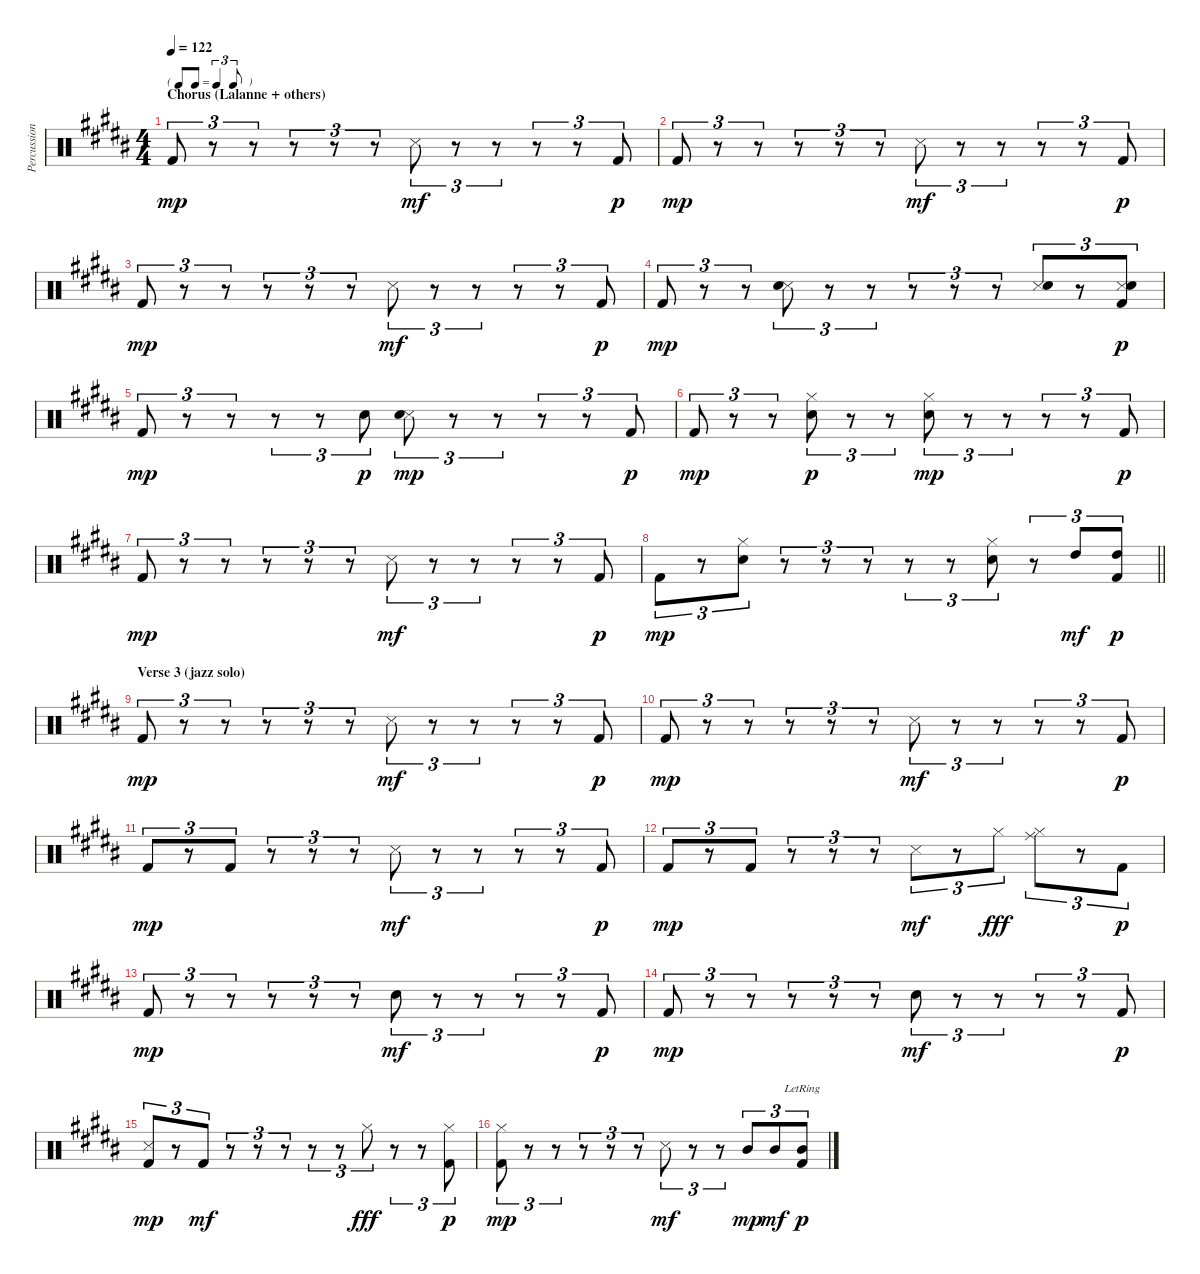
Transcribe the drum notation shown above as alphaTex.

\track ("Percussion" "Percussion") {instrument percussion}
\staff {score}
\articulation defaults
\ts (4 4)
\tf triplet8th
\section ("" "Chorus (Lalanne + others)")
\tempo 122
\clef neutral
\ks g#minor "Kick (hit) 2".8{tu (3 2) dy mp}
r.8{tu (3 2)} r.8{tu (3 2)} r.8{tu (3 2)} r.8{tu (3 2)} r.8{tu (3 2)} "Snare (side stick) 3".8{tu (3 2) dy mf} r.8{tu (3 2)} r.8{tu (3 2)} r.8{tu (3 2)} r.8{tu (3 2)} "Kick (hit) 2".8{tu (3 2) dy p} |
"Kick (hit) 2".8{tu (3 2) dy mp} r.8{tu (3 2)} r.8{tu (3 2)} r.8{tu (3 2)} r.8{tu (3 2)} r.8{tu (3 2)} "Snare (side stick) 3".8{tu (3 2) dy mf} r.8{tu (3 2)} r.8{tu (3 2)} r.8{tu (3 2)} r.8{tu (3 2)} "Kick (hit) 2".8{tu (3 2) dy p} |
"Kick (hit) 2".8{tu (3 2) dy mp} r.8{tu (3 2)} r.8{tu (3 2)} r.8{tu (3 2)} r.8{tu (3 2)} r.8{tu (3 2)} "Snare (side stick) 3".8{tu (3 2) dy mf} r.8{tu (3 2)} r.8{tu (3 2)} r.8{tu (3 2)} r.8{tu (3 2)} "Kick (hit) 2".8{tu (3 2) dy p} |
"Kick (hit) 2".8{tu (3 2) dy mp} r.8{tu (3 2)} r.8{tu (3 2)} ("Snare (side stick) 3" "Snare (hit) 2").8{tu (3 2)} r.8{tu (3 2)} r.8{tu (3 2)} r.8{tu (3 2)} r.8{tu (3 2)} r.8{tu (3 2)} ("Snare (side stick) 3" "Snare (hit) 2").8{tu (3 2)} r.8{tu (3 2)} ("Snare (side stick) 3" "Snare (hit) 2" "Kick (hit) 2").8{tu (3 2) dy p} |
"Kick (hit) 2".8{tu (3 2) dy mp} r.8{tu (3 2)} r.8{tu (3 2)} r.8{tu (3 2)} r.8{tu (3 2)} "Snare (hit) 2".8{tu (3 2) dy p} ("Snare (side stick) 3" "Snare (hit) 2").8{tu (3 2) dy mp} r.8{tu (3 2)} r.8{tu (3 2)} r.8{tu (3 2)} r.8{tu (3 2)} "Kick (hit) 2".8{tu (3 2) dy p} |
"Kick (hit) 2".8{tu (3 2) dy mp} r.8{tu (3 2)} r.8{tu (3 2)} ("Hi-Hat (closed)" "Snare (hit) 2").8{tu (3 2) dy p} r.8{tu (3 2)} r.8{tu (3 2)} ("Hi-Hat (closed)" "Snare (hit) 2").8{tu (3 2) dy mp} r.8{tu (3 2)} r.8{tu (3 2)} r.8{tu (3 2)} r.8{tu (3 2)} "Kick (hit) 2".8{tu (3 2) dy p} |
"Kick (hit) 2".8{tu (3 2) dy mp} r.8{tu (3 2)} r.8{tu (3 2)} r.8{tu (3 2)} r.8{tu (3 2)} r.8{tu (3 2)} "Snare (side stick) 3".8{tu (3 2) dy mf} r.8{tu (3 2)} r.8{tu (3 2)} r.8{tu (3 2)} r.8{tu (3 2)} "Kick (hit) 2".8{tu (3 2) dy p} |
\barLineRight lightlight "Kick (hit) 2".8{tu (3 2) dy mp}
r.8{tu (3 2)} ("Hi-Hat (closed)" "Snare (hit) 2").8{tu (3 2)} r.8{tu (3 2)} r.8{tu (3 2)} r.8{tu (3 2)} r.8{tu (3 2)} r.8{tu (3 2)} ("Hi-Hat (closed)" "Snare (hit) 2").8{tu (3 2)} r.8{tu (3 2)} "High Tom (hit)".8{tu (3 2) dy mf} ("High Tom (hit)" "Kick (hit) 2").8{tu (3 2) dy p} |
\section ("" "Verse 3 (jazz solo)")
"Kick (hit) 2".8{tu (3 2) dy mp} r.8{tu (3 2)} r.8{tu (3 2)} r.8{tu (3 2)} r.8{tu (3 2)} r.8{tu (3 2)} "Snare (side stick) 3".8{tu (3 2) dy mf} r.8{tu (3 2)} r.8{tu (3 2)} r.8{tu (3 2)} r.8{tu (3 2)} "Kick (hit) 2".8{tu (3 2) dy p} |
"Kick (hit) 2".8{tu (3 2) dy mp} r.8{tu (3 2)} r.8{tu (3 2)} r.8{tu (3 2)} r.8{tu (3 2)} r.8{tu (3 2)} "Snare (side stick) 3".8{tu (3 2) dy mf} r.8{tu (3 2)} r.8{tu (3 2)} r.8{tu (3 2)} r.8{tu (3 2)} "Kick (hit) 2".8{tu (3 2) dy p} |
"Kick (hit) 2".8{tu (3 2) dy mp} r.8{tu (3 2)} "Kick (hit) 2".8{tu (3 2)} r.8{tu (3 2)} r.8{tu (3 2)} r.8{tu (3 2)} "Snare (side stick) 3".8{tu (3 2) dy mf} r.8{tu (3 2)} r.8{tu (3 2)} r.8{tu (3 2)} r.8{tu (3 2)} "Kick (hit) 2".8{tu (3 2) dy p} |
"Kick (hit) 2".8{tu (3 2) dy mp} r.8{tu (3 2)} "Kick (hit) 2".8{tu (3 2)} r.8{tu (3 2)} r.8{tu (3 2)} r.8{tu (3 2)} "Snare (side stick) 3".8{tu (3 2) dy mf} r.8{tu (3 2)} "Hi-Hat (closed)".8{tu (3 2) dy fff} ("Ride (middle)" "Hi-Hat (closed)").8{tu (3 2)} r.8{tu (3 2)} "Kick (hit) 2".8{tu (3 2) dy p} |
"Kick (hit) 2".8{tu (3 2) dy mp} r.8{tu (3 2)} r.8{tu (3 2)} r.8{tu (3 2)} r.8{tu (3 2)} r.8{tu (3 2)} "Snare (hit) 2".8{tu (3 2) dy mf} r.8{tu (3 2)} r.8{tu (3 2)} r.8{tu (3 2)} r.8{tu (3 2)} "Kick (hit) 2".8{tu (3 2) dy p} |
"Kick (hit) 2".8{tu (3 2) dy mp} r.8{tu (3 2)} r.8{tu (3 2)} r.8{tu (3 2)} r.8{tu (3 2)} r.8{tu (3 2)} "Snare (hit) 2".8{tu (3 2) dy mf} r.8{tu (3 2)} r.8{tu (3 2)} r.8{tu (3 2)} r.8{tu (3 2)} "Kick (hit) 2".8{tu (3 2) dy p} |
("Snare (side stick) 3" "Kick (hit) 2").8{tu (3 2) dy mp} r.8{tu (3 2)} "Kick (hit) 2".8{tu (3 2) dy mf} r.8{tu (3 2)} r.8{tu (3 2)} r.8{tu (3 2)} r.8{tu (3 2)} r.8{tu (3 2)} "Hi-Hat (closed)".8{tu (3 2) dy fff} r.8{tu (3 2)} r.8{tu (3 2)} ("Hi-Hat (closed)" "Kick (hit) 2").8{tu (3 2) dy p} |
("Hi-Hat (closed)" "Kick (hit) 2").8{tu (3 2) dy mp} r.8{tu (3 2)} r.8{tu (3 2)} r.8{tu (3 2)} r.8{tu (3 2)} r.8{tu (3 2)} "Snare (side stick) 3".8{tu (3 2) dy mf} r.8{tu (3 2)} r.8{tu (3 2)} "Mid Tom (hit)".8{tu (3 2) dy mp} "Mid Tom (hit)".8{tu (3 2) dy mf} ("Mid Tom (hit)"{lr} "Kick (hit) 2").8{tu (3 2) dy p}
